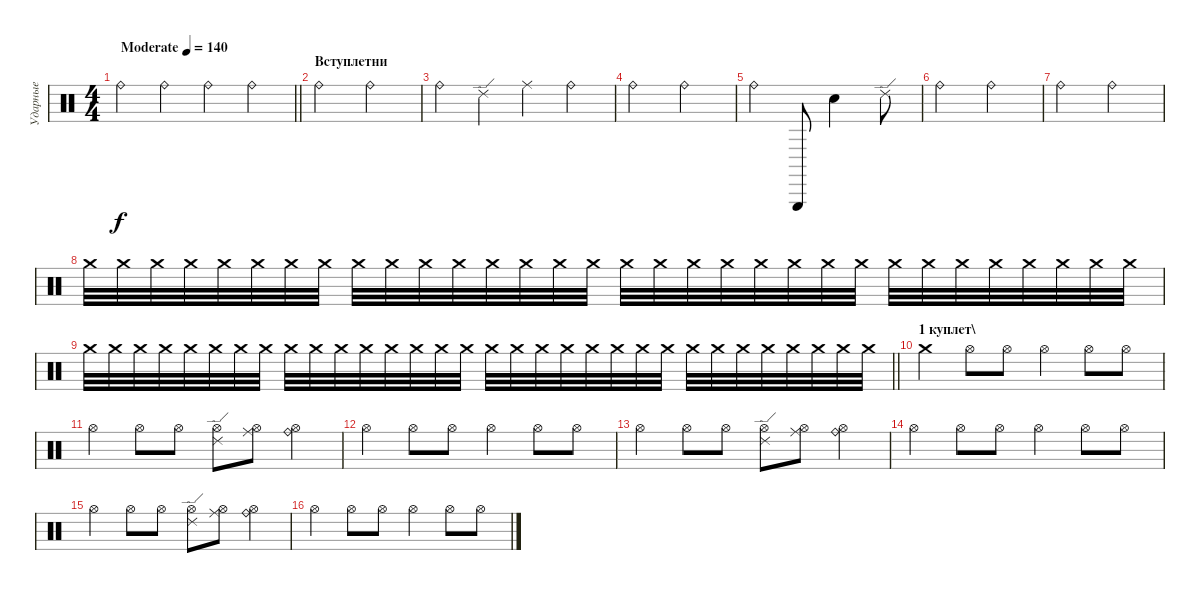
\track ("Ударные" "Ударные") {instrument percussion}
\staff {score}
\articulation defaults
\ts (4 4)
\tempo (140 "Moderate")
\clef neutral
\barLineRight lightlight
\ks c "Ride (bell)".4{dy f} "Ride (bell)".4 "Ride (bell)".4 "Ride (bell)".4
|
\section ("" "Вступлетни")
"Ride (bell)".2 "Ride (bell)".2 |
"Ride (bell)".4 "Ride (edge) 2".4 "Ride (middle)".4 "Ride (bell)".4 |
"Ride (bell)".2 "Ride (bell)".2 |
"Ride (bell)".4 "Triangle (hit)".8 "Metronome (bell)".2 "Ride (edge) 2".8 |
"Ride (bell)".2 "Ride (bell)".2 |
"Ride (bell)".2 "Ride (bell)".2 |
"Crash medium (hit)".32{volume 1} "Crash medium (hit)".32 "Crash medium (hit)".32 "Crash medium (hit)".32{volume 3} "Crash medium (hit)".32 "Crash medium (hit)".32 "Crash medium (hit)".32{volume 4} "Crash medium (hit)".32 "Crash medium (hit)".32 "Crash medium (hit)".32{volume 5} "Crash medium (hit)".32 "Crash medium (hit)".32 "Crash medium (hit)".32{volume 6} "Crash medium (hit)".32 "Crash medium (hit)".32 "Crash medium (hit)".32{volume 7} "Crash medium (hit)".32 "Crash medium (hit)".32 "Crash medium (hit)".32 "Crash medium (hit)".32{volume 7} "Crash medium (hit)".32 "Crash medium (hit)".32 "Crash medium (hit)".32 "Crash medium (hit)".32{volume 8} "Crash medium (hit)".32 "Crash medium (hit)".32 "Crash medium (hit)".32 "Crash medium (hit)".32{volume 9} "Crash medium (hit)".32 "Crash medium (hit)".32 "Crash medium (hit)".32 "Crash medium (hit)".32{volume 9} |
\barLineRight lightlight "Crash medium (hit)".32 "Crash medium (hit)".32 "Crash medium (hit)".32 "Crash medium (hit)".32{volume 10} "Crash medium (hit)".32 "Crash medium (hit)".32 "Crash medium (hit)".32 "Crash medium (hit)".32{volume 10} "Crash medium (hit)".32 "Crash medium (hit)".32 "Crash medium (hit)".32 "Crash medium (hit)".32{volume 13} "Crash medium (hit)".32 "Crash medium (hit)".32 "Crash medium (hit)".32 "Crash medium (hit)".32 "Crash medium (hit)".32 "Crash medium (hit)".32 "Crash medium (hit)".32{volume 10} "Crash medium (hit)".32 "Crash medium (hit)".32 "Crash medium (hit)".32 "Crash medium (hit)".32{volume 10} "Crash medium (hit)".32 "Crash medium (hit)".32 "Crash medium (hit)".32 "Crash medium (hit)".32{volume 13} "Crash medium (hit)".32 "Crash medium (hit)".32 "Crash medium (hit)".32 "Crash medium (hit)".32{volume 16} "Crash medium (hit)".32{volume 16}
|
\section ("" "1 куплет\\")
"Crash medium (hit)".4{volume 13} "Hi-Hat (open)".8 "Hi-Hat (open)".8 "Hi-Hat (open)".4 "Hi-Hat (open)".8 "Hi-Hat (open)".8 |
"Hi-Hat (open)".4 "Hi-Hat (open)".8 "Hi-Hat (open)".8 ("Hi-Hat (open)" "Ride (edge) 2").8 ("Hi-Hat (open)" "Ride (middle)").8 ("Hi-Hat (open)" "Ride (bell)").4 |
"Hi-Hat (open)".4 "Hi-Hat (open)".8 "Hi-Hat (open)".8 "Hi-Hat (open)".4 "Hi-Hat (open)".8 "Hi-Hat (open)".8 |
"Hi-Hat (open)".4 "Hi-Hat (open)".8 "Hi-Hat (open)".8 ("Hi-Hat (open)" "Ride (edge) 2").8 ("Hi-Hat (open)" "Ride (middle)").8 ("Hi-Hat (open)" "Ride (bell)").4 |
"Hi-Hat (open)".4 "Hi-Hat (open)".8 "Hi-Hat (open)".8 "Hi-Hat (open)".4 "Hi-Hat (open)".8 "Hi-Hat (open)".8 |
"Hi-Hat (open)".4 "Hi-Hat (open)".8 "Hi-Hat (open)".8 ("Hi-Hat (open)" "Ride (edge) 2").8 ("Hi-Hat (open)" "Ride (middle)").8 ("Hi-Hat (open)" "Ride (bell)").4 |
"Hi-Hat (open)".4 "Hi-Hat (open)".8 "Hi-Hat (open)".8 "Hi-Hat (open)".4 "Hi-Hat (open)".8 "Hi-Hat (open)".8
